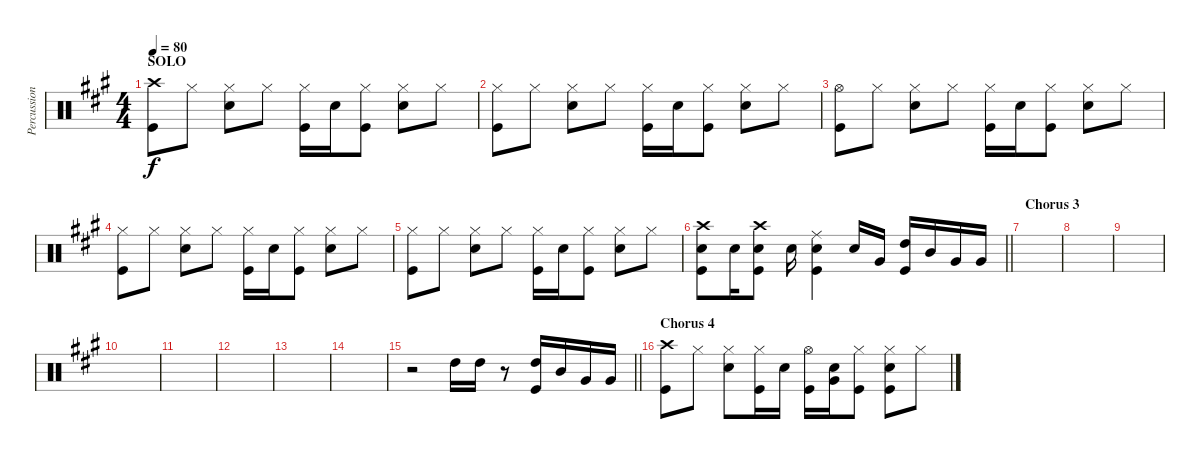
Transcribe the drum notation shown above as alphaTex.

\track ("Percussion" "Percussion") {instrument percussion bank 47}
\staff {score}
\articulation defaults
\ts (4 4)
\section ("" "SOLO")
\tempo 80
\clef neutral
\ks a
("Crash high (hit)" "Kick (hit)").8{dy f} "Hi-Hat (closed)".8 ("Hi-Hat (closed)" "Snare (hit) 2").8 "Hi-Hat (closed)".8 ("Hi-Hat (closed)" "Kick (hit)").16 "Snare (hit) 2".16 ("Hi-Hat (closed)" "Kick (hit)").8 ("Hi-Hat (closed)" "Snare (hit) 2").8 "Hi-Hat (closed)".8 |
("Hi-Hat (closed)" "Kick (hit)").8 "Hi-Hat (closed)".8 ("Hi-Hat (closed)" "Snare (hit) 2").8 "Hi-Hat (closed)".8 ("Hi-Hat (closed)" "Kick (hit)").16 "Snare (hit) 2".16 ("Hi-Hat (closed)" "Kick (hit)").8 ("Hi-Hat (closed)" "Snare (hit) 2").8 "Hi-Hat (closed)".8 |
("Hi-Hat (open)" "Kick (hit)").8 "Hi-Hat (closed)".8 ("Hi-Hat (closed)" "Snare (hit) 2").8 "Hi-Hat (closed)".8 ("Hi-Hat (closed)" "Kick (hit)").16 "Snare (hit) 2".16 ("Hi-Hat (closed)" "Kick (hit)").8 ("Hi-Hat (closed)" "Snare (hit) 2").8 "Hi-Hat (closed)".8 |
("Hi-Hat (closed)" "Kick (hit)").8 "Hi-Hat (closed)".8 ("Hi-Hat (closed)" "Snare (hit) 2").8 "Hi-Hat (closed)".8 ("Hi-Hat (closed)" "Kick (hit)").16 "Snare (hit) 2".16 ("Hi-Hat (closed)" "Kick (hit)").8 ("Hi-Hat (closed)" "Snare (hit) 2").8 "Hi-Hat (closed)".8 |
("Hi-Hat (closed)" "Kick (hit)").8 "Hi-Hat (closed)".8 ("Hi-Hat (closed)" "Snare (hit) 2").8 "Hi-Hat (closed)".8 ("Hi-Hat (closed)" "Kick (hit)").16 "Snare (hit) 2".16 ("Hi-Hat (closed)" "Kick (hit)").8 ("Hi-Hat (closed)" "Snare (hit) 2").8 "Hi-Hat (closed)".8 |
\barLineRight lightlight
("Crash high (hit)" "Snare (hit) 2" "Kick (hit)").8 "Snare (hit) 2".16 ("Crash high (hit)" "Snare (hit) 2" "Kick (hit)").8 "Snare (hit) 2".16 ("Ride (middle)" "Snare (hit) 2" "Kick (hit)").4 "Snare (hit) 2".16 "Very Low Tom (hit)".16 ("High Tom (hit)" "Kick (hit)").16 "Mid Tom (hit)".16 "Very Low Tom (hit)".16 "Very Low Tom (hit)".16 |
\section ("" "Chorus 3")
|
|
|
|
|
|
|
|
\barLineRight lightlight
r.2 "High Tom (hit)".16 "High Tom (hit)".16 r.8 ("High Tom (hit)" "Kick (hit)").16 "Mid Tom (hit)".16 "Very Low Tom (hit)".16 "Very Low Tom (hit)".16 |
\section ("" "Chorus 4")
("Crash high (hit)" "Kick (hit)").8 "Hi-Hat (closed)".8 ("Hi-Hat (closed)" "Snare (hit) 2").8 ("Hi-Hat (closed)" "Kick (hit)").16 "Snare (hit) 2".16 ("Hi-Hat (open)" "Kick (hit)").16 ("Very Low Tom (hit)" "Snare (hit) 2").16 ("Hi-Hat (closed)" "Kick (hit)").8 ("Hi-Hat (closed)" "Snare (hit) 2" "Kick (hit)").8 "Hi-Hat (closed)".8
